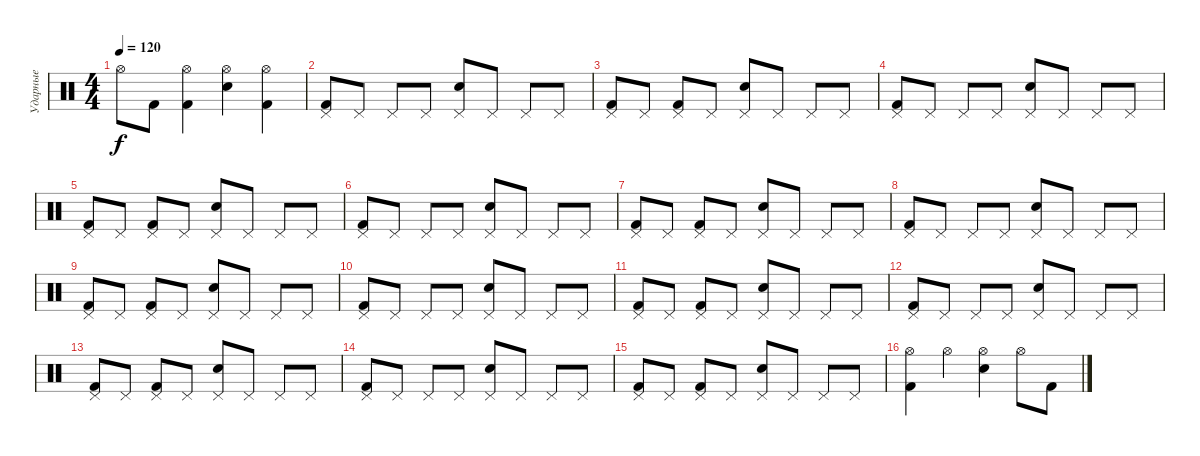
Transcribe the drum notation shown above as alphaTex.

\track ("Ударные" "Ударные") {instrument percussion}
\staff {score}
\articulation defaults
\ts (4 4)
\tempo 120
\clef neutral
\ks c "Hi-Hat (open)".8{dy f} "Kick (hit) 2".8
("Hi-Hat (open)" "Kick (hit) 2").4 ("Hi-Hat (open)" "Snare (hit) 2").4 ("Hi-Hat (open)" "Kick (hit) 2").4 |
("Pedal Hi-Hat (hit)" "Kick (hit) 2").8 "Pedal Hi-Hat (hit)".8 "Pedal Hi-Hat (hit)".8 "Pedal Hi-Hat (hit)".8 ("Pedal Hi-Hat (hit)" "Snare (hit) 2").8 "Pedal Hi-Hat (hit)".8 "Pedal Hi-Hat (hit)".8 "Pedal Hi-Hat (hit)".8 |
("Pedal Hi-Hat (hit)" "Kick (hit) 2").8 "Pedal Hi-Hat (hit)".8 ("Pedal Hi-Hat (hit)" "Kick (hit) 2").8 "Pedal Hi-Hat (hit)".8 ("Pedal Hi-Hat (hit)" "Snare (hit) 2").8 "Pedal Hi-Hat (hit)".8 "Pedal Hi-Hat (hit)".8 "Pedal Hi-Hat (hit)".8 |
("Pedal Hi-Hat (hit)" "Kick (hit) 2").8 "Pedal Hi-Hat (hit)".8 "Pedal Hi-Hat (hit)".8 "Pedal Hi-Hat (hit)".8 ("Pedal Hi-Hat (hit)" "Snare (hit) 2").8 "Pedal Hi-Hat (hit)".8 "Pedal Hi-Hat (hit)".8 "Pedal Hi-Hat (hit)".8 |
("Pedal Hi-Hat (hit)" "Kick (hit) 2").8 "Pedal Hi-Hat (hit)".8 ("Pedal Hi-Hat (hit)" "Kick (hit) 2").8 "Pedal Hi-Hat (hit)".8 ("Pedal Hi-Hat (hit)" "Snare (hit) 2").8 "Pedal Hi-Hat (hit)".8 "Pedal Hi-Hat (hit)".8 "Pedal Hi-Hat (hit)".8 |
("Pedal Hi-Hat (hit)" "Kick (hit) 2").8 "Pedal Hi-Hat (hit)".8 "Pedal Hi-Hat (hit)".8 "Pedal Hi-Hat (hit)".8 ("Pedal Hi-Hat (hit)" "Snare (hit) 2").8 "Pedal Hi-Hat (hit)".8 "Pedal Hi-Hat (hit)".8 "Pedal Hi-Hat (hit)".8 |
("Pedal Hi-Hat (hit)" "Kick (hit) 2").8 "Pedal Hi-Hat (hit)".8 ("Pedal Hi-Hat (hit)" "Kick (hit) 2").8 "Pedal Hi-Hat (hit)".8 ("Pedal Hi-Hat (hit)" "Snare (hit) 2").8 "Pedal Hi-Hat (hit)".8 "Pedal Hi-Hat (hit)".8 "Pedal Hi-Hat (hit)".8 |
("Pedal Hi-Hat (hit)" "Kick (hit) 2").8 "Pedal Hi-Hat (hit)".8 "Pedal Hi-Hat (hit)".8 "Pedal Hi-Hat (hit)".8 ("Pedal Hi-Hat (hit)" "Snare (hit) 2").8 "Pedal Hi-Hat (hit)".8 "Pedal Hi-Hat (hit)".8 "Pedal Hi-Hat (hit)".8 |
("Pedal Hi-Hat (hit)" "Kick (hit) 2").8 "Pedal Hi-Hat (hit)".8 ("Pedal Hi-Hat (hit)" "Kick (hit) 2").8 "Pedal Hi-Hat (hit)".8 ("Pedal Hi-Hat (hit)" "Snare (hit) 2").8 "Pedal Hi-Hat (hit)".8 "Pedal Hi-Hat (hit)".8 "Pedal Hi-Hat (hit)".8 |
("Pedal Hi-Hat (hit)" "Kick (hit) 2").8 "Pedal Hi-Hat (hit)".8 "Pedal Hi-Hat (hit)".8 "Pedal Hi-Hat (hit)".8 ("Pedal Hi-Hat (hit)" "Snare (hit) 2").8 "Pedal Hi-Hat (hit)".8 "Pedal Hi-Hat (hit)".8 "Pedal Hi-Hat (hit)".8 |
("Pedal Hi-Hat (hit)" "Kick (hit) 2").8 "Pedal Hi-Hat (hit)".8 ("Pedal Hi-Hat (hit)" "Kick (hit) 2").8 "Pedal Hi-Hat (hit)".8 ("Pedal Hi-Hat (hit)" "Snare (hit) 2").8 "Pedal Hi-Hat (hit)".8 "Pedal Hi-Hat (hit)".8 "Pedal Hi-Hat (hit)".8 |
("Pedal Hi-Hat (hit)" "Kick (hit) 2").8 "Pedal Hi-Hat (hit)".8 "Pedal Hi-Hat (hit)".8 "Pedal Hi-Hat (hit)".8 ("Pedal Hi-Hat (hit)" "Snare (hit) 2").8 "Pedal Hi-Hat (hit)".8 "Pedal Hi-Hat (hit)".8 "Pedal Hi-Hat (hit)".8 |
("Pedal Hi-Hat (hit)" "Kick (hit) 2").8 "Pedal Hi-Hat (hit)".8 ("Pedal Hi-Hat (hit)" "Kick (hit) 2").8 "Pedal Hi-Hat (hit)".8 ("Pedal Hi-Hat (hit)" "Snare (hit) 2").8 "Pedal Hi-Hat (hit)".8 "Pedal Hi-Hat (hit)".8 "Pedal Hi-Hat (hit)".8 |
("Pedal Hi-Hat (hit)" "Kick (hit) 2").8 "Pedal Hi-Hat (hit)".8 "Pedal Hi-Hat (hit)".8 "Pedal Hi-Hat (hit)".8 ("Pedal Hi-Hat (hit)" "Snare (hit) 2").8 "Pedal Hi-Hat (hit)".8 "Pedal Hi-Hat (hit)".8 "Pedal Hi-Hat (hit)".8 |
("Pedal Hi-Hat (hit)" "Kick (hit) 2").8 "Pedal Hi-Hat (hit)".8 ("Pedal Hi-Hat (hit)" "Kick (hit) 2").8 "Pedal Hi-Hat (hit)".8 ("Pedal Hi-Hat (hit)" "Snare (hit) 2").8 "Pedal Hi-Hat (hit)".8 "Pedal Hi-Hat (hit)".8 "Pedal Hi-Hat (hit)".8 |
("Hi-Hat (open)" "Kick (hit) 2").4 "Hi-Hat (open)".4 ("Hi-Hat (open)" "Snare (hit) 2").4 "Hi-Hat (open)".8 "Kick (hit) 2".8
